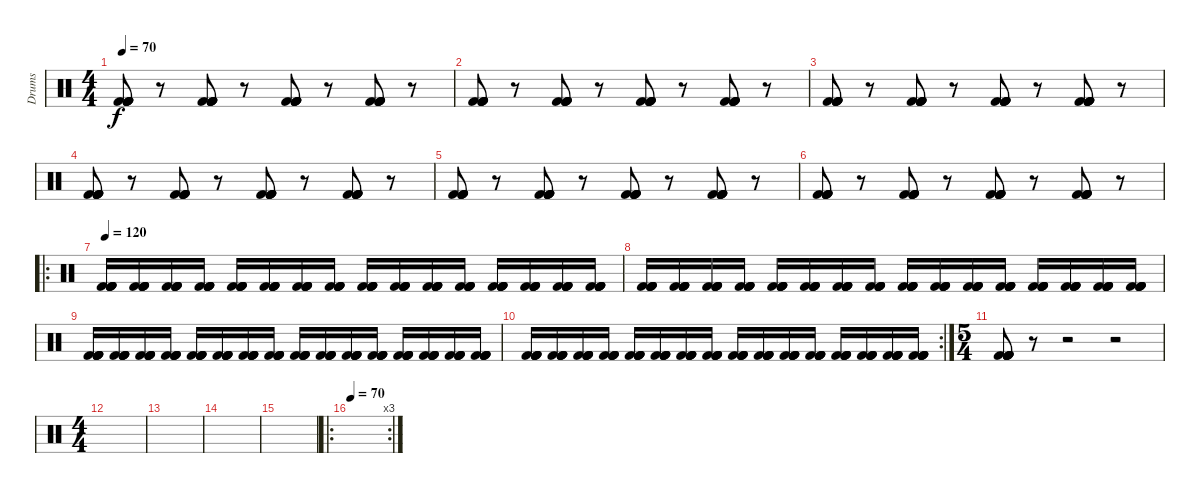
\track ("Drums" "Drums") {instrument percussion}
\staff {score}
\articulation defaults
\ts (4 4)
\tempo 70
\clef neutral
\ks c
("Kick (hit) 2" "Kick (hit) 2" "Kick (hit) 2" "Kick (hit) 2" "Kick (hit) 2").8{dy f} r.8 ("Kick (hit) 2" "Kick (hit) 2" "Kick (hit) 2" "Kick (hit) 2" "Kick (hit) 2").8 r.8 ("Kick (hit) 2" "Kick (hit) 2" "Kick (hit) 2" "Kick (hit) 2" "Kick (hit) 2").8 r.8 ("Kick (hit) 2" "Kick (hit) 2" "Kick (hit) 2" "Kick (hit) 2" "Kick (hit) 2").8 r.8 |
("Kick (hit) 2" "Kick (hit) 2" "Kick (hit) 2" "Kick (hit) 2" "Kick (hit) 2").8 r.8 ("Kick (hit) 2" "Kick (hit) 2" "Kick (hit) 2" "Kick (hit) 2" "Kick (hit) 2").8 r.8 ("Kick (hit) 2" "Kick (hit) 2" "Kick (hit) 2" "Kick (hit) 2" "Kick (hit) 2").8 r.8 ("Kick (hit) 2" "Kick (hit) 2" "Kick (hit) 2" "Kick (hit) 2" "Kick (hit) 2").8 r.8 |
("Kick (hit) 2" "Kick (hit) 2" "Kick (hit) 2" "Kick (hit) 2" "Kick (hit) 2").8 r.8 ("Kick (hit) 2" "Kick (hit) 2" "Kick (hit) 2" "Kick (hit) 2" "Kick (hit) 2").8 r.8 ("Kick (hit) 2" "Kick (hit) 2" "Kick (hit) 2" "Kick (hit) 2" "Kick (hit) 2").8 r.8 ("Kick (hit) 2" "Kick (hit) 2" "Kick (hit) 2" "Kick (hit) 2" "Kick (hit) 2").8 r.8 |
("Kick (hit) 2" "Kick (hit) 2" "Kick (hit) 2" "Kick (hit) 2" "Kick (hit) 2").8 r.8 ("Kick (hit) 2" "Kick (hit) 2" "Kick (hit) 2" "Kick (hit) 2" "Kick (hit) 2").8 r.8 ("Kick (hit) 2" "Kick (hit) 2" "Kick (hit) 2" "Kick (hit) 2" "Kick (hit) 2").8 r.8 ("Kick (hit) 2" "Kick (hit) 2" "Kick (hit) 2" "Kick (hit) 2" "Kick (hit) 2").8 r.8 |
("Kick (hit) 2" "Kick (hit) 2" "Kick (hit) 2" "Kick (hit) 2" "Kick (hit) 2").8 r.8 ("Kick (hit) 2" "Kick (hit) 2" "Kick (hit) 2" "Kick (hit) 2" "Kick (hit) 2").8 r.8 ("Kick (hit) 2" "Kick (hit) 2" "Kick (hit) 2" "Kick (hit) 2" "Kick (hit) 2").8 r.8 ("Kick (hit) 2" "Kick (hit) 2" "Kick (hit) 2" "Kick (hit) 2" "Kick (hit) 2").8 r.8 |
("Kick (hit) 2" "Kick (hit) 2" "Kick (hit) 2" "Kick (hit) 2" "Kick (hit) 2").8 r.8 ("Kick (hit) 2" "Kick (hit) 2" "Kick (hit) 2" "Kick (hit) 2" "Kick (hit) 2").8 r.8 ("Kick (hit) 2" "Kick (hit) 2" "Kick (hit) 2" "Kick (hit) 2" "Kick (hit) 2").8 r.8 ("Kick (hit) 2" "Kick (hit) 2" "Kick (hit) 2" "Kick (hit) 2" "Kick (hit) 2").8 r.8 |
\ro
\tempo 120
("Kick (hit) 2" "Kick (hit) 2" "Kick (hit) 2" "Kick (hit) 2" "Kick (hit) 2").16 ("Kick (hit) 2" "Kick (hit) 2" "Kick (hit) 2" "Kick (hit) 2" "Kick (hit) 2").16 ("Kick (hit) 2" "Kick (hit) 2" "Kick (hit) 2" "Kick (hit) 2" "Kick (hit) 2").16 ("Kick (hit) 2" "Kick (hit) 2" "Kick (hit) 2" "Kick (hit) 2" "Kick (hit) 2").16 ("Kick (hit) 2" "Kick (hit) 2" "Kick (hit) 2" "Kick (hit) 2" "Kick (hit) 2").16 ("Kick (hit) 2" "Kick (hit) 2" "Kick (hit) 2" "Kick (hit) 2" "Kick (hit) 2").16 ("Kick (hit) 2" "Kick (hit) 2" "Kick (hit) 2" "Kick (hit) 2" "Kick (hit) 2").16 ("Kick (hit) 2" "Kick (hit) 2" "Kick (hit) 2" "Kick (hit) 2" "Kick (hit) 2").16 ("Kick (hit) 2" "Kick (hit) 2" "Kick (hit) 2" "Kick (hit) 2" "Kick (hit) 2").16 ("Kick (hit) 2" "Kick (hit) 2" "Kick (hit) 2" "Kick (hit) 2" "Kick (hit) 2").16 ("Kick (hit) 2" "Kick (hit) 2" "Kick (hit) 2" "Kick (hit) 2" "Kick (hit) 2").16 ("Kick (hit) 2" "Kick (hit) 2" "Kick (hit) 2" "Kick (hit) 2" "Kick (hit) 2").16 ("Kick (hit) 2" "Kick (hit) 2" "Kick (hit) 2" "Kick (hit) 2" "Kick (hit) 2").16 ("Kick (hit) 2" "Kick (hit) 2" "Kick (hit) 2" "Kick (hit) 2" "Kick (hit) 2").16 ("Kick (hit) 2" "Kick (hit) 2" "Kick (hit) 2" "Kick (hit) 2" "Kick (hit) 2").16 ("Kick (hit) 2" "Kick (hit) 2" "Kick (hit) 2" "Kick (hit) 2" "Kick (hit) 2").16 |
("Kick (hit) 2" "Kick (hit) 2" "Kick (hit) 2" "Kick (hit) 2" "Kick (hit) 2").16 ("Kick (hit) 2" "Kick (hit) 2" "Kick (hit) 2" "Kick (hit) 2" "Kick (hit) 2").16 ("Kick (hit) 2" "Kick (hit) 2" "Kick (hit) 2" "Kick (hit) 2" "Kick (hit) 2").16 ("Kick (hit) 2" "Kick (hit) 2" "Kick (hit) 2" "Kick (hit) 2" "Kick (hit) 2").16 ("Kick (hit) 2" "Kick (hit) 2" "Kick (hit) 2" "Kick (hit) 2" "Kick (hit) 2").16 ("Kick (hit) 2" "Kick (hit) 2" "Kick (hit) 2" "Kick (hit) 2" "Kick (hit) 2").16 ("Kick (hit) 2" "Kick (hit) 2" "Kick (hit) 2" "Kick (hit) 2" "Kick (hit) 2").16 ("Kick (hit) 2" "Kick (hit) 2" "Kick (hit) 2" "Kick (hit) 2" "Kick (hit) 2").16 ("Kick (hit) 2" "Kick (hit) 2" "Kick (hit) 2" "Kick (hit) 2" "Kick (hit) 2").16 ("Kick (hit) 2" "Kick (hit) 2" "Kick (hit) 2" "Kick (hit) 2" "Kick (hit) 2").16 ("Kick (hit) 2" "Kick (hit) 2" "Kick (hit) 2" "Kick (hit) 2" "Kick (hit) 2").16 ("Kick (hit) 2" "Kick (hit) 2" "Kick (hit) 2" "Kick (hit) 2" "Kick (hit) 2").16 ("Kick (hit) 2" "Kick (hit) 2" "Kick (hit) 2" "Kick (hit) 2" "Kick (hit) 2").16 ("Kick (hit) 2" "Kick (hit) 2" "Kick (hit) 2" "Kick (hit) 2" "Kick (hit) 2").16 ("Kick (hit) 2" "Kick (hit) 2" "Kick (hit) 2" "Kick (hit) 2" "Kick (hit) 2").16 ("Kick (hit) 2" "Kick (hit) 2" "Kick (hit) 2" "Kick (hit) 2" "Kick (hit) 2").16 |
("Kick (hit) 2" "Kick (hit) 2" "Kick (hit) 2" "Kick (hit) 2" "Kick (hit) 2").16 ("Kick (hit) 2" "Kick (hit) 2" "Kick (hit) 2" "Kick (hit) 2" "Kick (hit) 2").16 ("Kick (hit) 2" "Kick (hit) 2" "Kick (hit) 2" "Kick (hit) 2" "Kick (hit) 2").16 ("Kick (hit) 2" "Kick (hit) 2" "Kick (hit) 2" "Kick (hit) 2" "Kick (hit) 2").16 ("Kick (hit) 2" "Kick (hit) 2" "Kick (hit) 2" "Kick (hit) 2" "Kick (hit) 2").16 ("Kick (hit) 2" "Kick (hit) 2" "Kick (hit) 2" "Kick (hit) 2" "Kick (hit) 2").16 ("Kick (hit) 2" "Kick (hit) 2" "Kick (hit) 2" "Kick (hit) 2" "Kick (hit) 2").16 ("Kick (hit) 2" "Kick (hit) 2" "Kick (hit) 2" "Kick (hit) 2" "Kick (hit) 2").16 ("Kick (hit) 2" "Kick (hit) 2" "Kick (hit) 2" "Kick (hit) 2" "Kick (hit) 2").16 ("Kick (hit) 2" "Kick (hit) 2" "Kick (hit) 2" "Kick (hit) 2" "Kick (hit) 2").16 ("Kick (hit) 2" "Kick (hit) 2" "Kick (hit) 2" "Kick (hit) 2" "Kick (hit) 2").16 ("Kick (hit) 2" "Kick (hit) 2" "Kick (hit) 2" "Kick (hit) 2" "Kick (hit) 2").16 ("Kick (hit) 2" "Kick (hit) 2" "Kick (hit) 2" "Kick (hit) 2" "Kick (hit) 2").16 ("Kick (hit) 2" "Kick (hit) 2" "Kick (hit) 2" "Kick (hit) 2" "Kick (hit) 2").16 ("Kick (hit) 2" "Kick (hit) 2" "Kick (hit) 2" "Kick (hit) 2" "Kick (hit) 2").16 ("Kick (hit) 2" "Kick (hit) 2" "Kick (hit) 2" "Kick (hit) 2" "Kick (hit) 2").16 |
\rc 2
("Kick (hit) 2" "Kick (hit) 2" "Kick (hit) 2" "Kick (hit) 2" "Kick (hit) 2").16 ("Kick (hit) 2" "Kick (hit) 2" "Kick (hit) 2" "Kick (hit) 2" "Kick (hit) 2").16 ("Kick (hit) 2" "Kick (hit) 2" "Kick (hit) 2" "Kick (hit) 2" "Kick (hit) 2").16 ("Kick (hit) 2" "Kick (hit) 2" "Kick (hit) 2" "Kick (hit) 2" "Kick (hit) 2").16 ("Kick (hit) 2" "Kick (hit) 2" "Kick (hit) 2" "Kick (hit) 2" "Kick (hit) 2").16 ("Kick (hit) 2" "Kick (hit) 2" "Kick (hit) 2" "Kick (hit) 2" "Kick (hit) 2").16 ("Kick (hit) 2" "Kick (hit) 2" "Kick (hit) 2" "Kick (hit) 2" "Kick (hit) 2").16 ("Kick (hit) 2" "Kick (hit) 2" "Kick (hit) 2" "Kick (hit) 2" "Kick (hit) 2").16 ("Kick (hit) 2" "Kick (hit) 2" "Kick (hit) 2" "Kick (hit) 2" "Kick (hit) 2").16 ("Kick (hit) 2" "Kick (hit) 2" "Kick (hit) 2" "Kick (hit) 2" "Kick (hit) 2").16 ("Kick (hit) 2" "Kick (hit) 2" "Kick (hit) 2" "Kick (hit) 2" "Kick (hit) 2").16 ("Kick (hit) 2" "Kick (hit) 2" "Kick (hit) 2" "Kick (hit) 2" "Kick (hit) 2").16 ("Kick (hit) 2" "Kick (hit) 2" "Kick (hit) 2" "Kick (hit) 2" "Kick (hit) 2").16 ("Kick (hit) 2" "Kick (hit) 2" "Kick (hit) 2" "Kick (hit) 2" "Kick (hit) 2").16 ("Kick (hit) 2" "Kick (hit) 2" "Kick (hit) 2" "Kick (hit) 2" "Kick (hit) 2").16 ("Kick (hit) 2" "Kick (hit) 2" "Kick (hit) 2" "Kick (hit) 2" "Kick (hit) 2").16 |
\ts (5 4)
("Kick (hit) 2" "Kick (hit) 2" "Kick (hit) 2" "Kick (hit) 2" "Kick (hit) 2" "Kick (hit) 2").8 r.8 r.2 r.2 |
\ts (4 4)
|
|
|
|
\ro
\rc 3
\tempo 70
